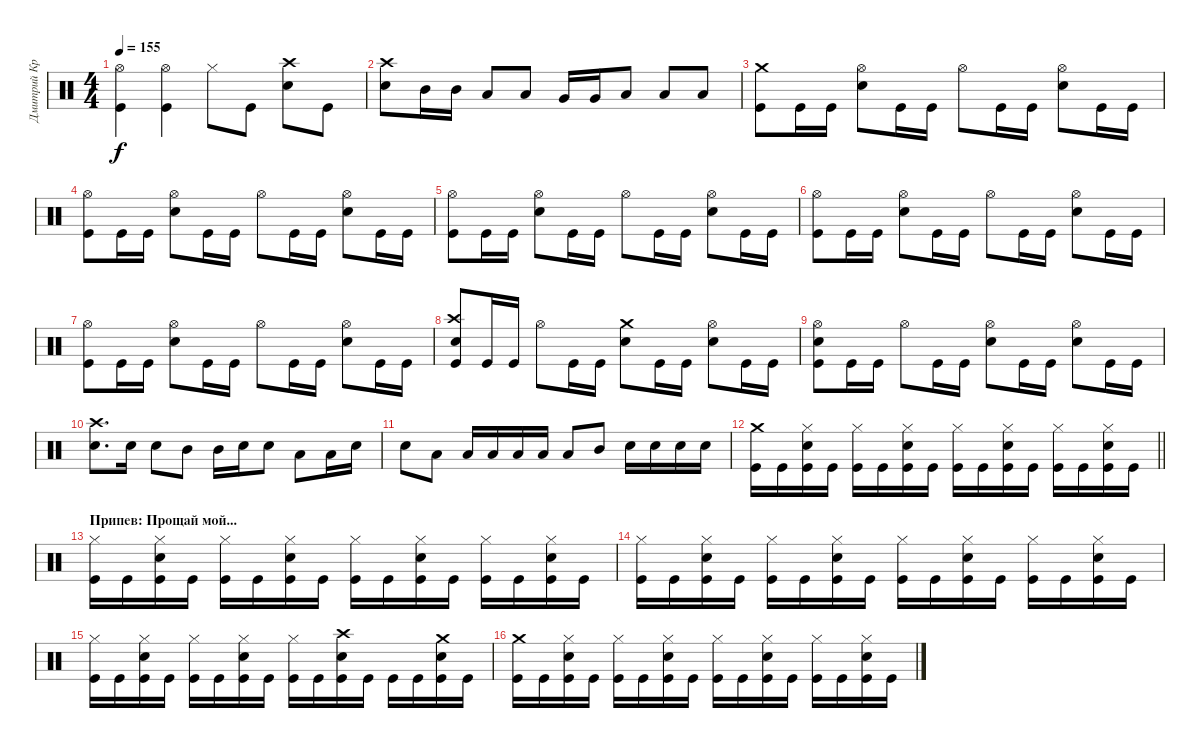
\track ("Дмитрий Кривенков" "Дмитрий Кр") {instrument percussion}
\staff {score}
\articulation defaults
\ts (4 4)
\tempo 155
\clef neutral
\ks c
("Hi-Hat (open)" "Kick (hit)").4{dy f} ("Hi-Hat (open)" "Kick (hit)").4 "Hi-Hat (closed)".8 "Kick (hit)".8 ("Crash high (hit)" "Snare (hit) 2").8 "Kick (hit)".8 |
("Crash high (hit)" "Snare (hit) 2").8 "Mid Tom (hit)".16 "Mid Tom (hit)".16 "Low Tom (hit)".8 "Low Tom (hit)".8 "Very Low Tom (hit)".16 "Very Low Tom (hit)".16 "Low Floor Tom (hit)".8 "Low Floor Tom (hit)".8 "Low Floor Tom (hit)".8 |
("Crash medium (hit)" "Kick (hit)").8 "Kick (hit)".16 "Kick (hit)".16 ("Hi-Hat (open)" "Snare (hit) 2").8 "Kick (hit)".16 "Kick (hit)".16 "Hi-Hat (open)".8 "Kick (hit)".16 "Kick (hit)".16 ("Hi-Hat (open)" "Snare (hit) 2").8 "Kick (hit)".16 "Kick (hit)".16 |
("Hi-Hat (open)" "Kick (hit)").8 "Kick (hit)".16 "Kick (hit)".16 ("Hi-Hat (open)" "Snare (hit) 2").8 "Kick (hit)".16 "Kick (hit)".16 "Hi-Hat (open)".8 "Kick (hit)".16 "Kick (hit)".16 ("Hi-Hat (open)" "Snare (hit) 2").8 "Kick (hit)".16 "Kick (hit)".16 |
("Hi-Hat (open)" "Kick (hit)").8 "Kick (hit)".16 "Kick (hit)".16 ("Hi-Hat (open)" "Snare (hit) 2").8 "Kick (hit)".16 "Kick (hit)".16 "Hi-Hat (open)".8 "Kick (hit)".16 "Kick (hit)".16 ("Hi-Hat (open)" "Snare (hit) 2").8 "Kick (hit)".16 "Kick (hit)".16 |
("Hi-Hat (open)" "Kick (hit)").8 "Kick (hit)".16 "Kick (hit)".16 ("Hi-Hat (open)" "Snare (hit) 2").8 "Kick (hit)".16 "Kick (hit)".16 "Hi-Hat (open)".8 "Kick (hit)".16 "Kick (hit)".16 ("Hi-Hat (open)" "Snare (hit) 2").8 "Kick (hit)".16 "Kick (hit)".16 |
("Hi-Hat (open)" "Kick (hit)").8 "Kick (hit)".16 "Kick (hit)".16 ("Hi-Hat (open)" "Snare (hit) 2").8 "Kick (hit)".16 "Kick (hit)".16 "Hi-Hat (open)".8 "Kick (hit)".16 "Kick (hit)".16 ("Hi-Hat (open)" "Snare (hit) 2").8 "Kick (hit)".16 "Kick (hit)".16 |
("Crash high (hit)" "Snare (hit) 2" "Kick (hit)").8 "Kick (hit)".16 "Kick (hit)".16 "Hi-Hat (open)".8 "Kick (hit)".16 "Kick (hit)".16 ("Crash medium (hit)" "Snare (hit) 2").8 "Kick (hit)".16 "Kick (hit)".16 ("Hi-Hat (open)" "Snare (hit) 2").8 "Kick (hit)".16 "Kick (hit)".16 |
("Hi-Hat (open)" "Snare (hit) 2" "Kick (hit)").8 "Kick (hit)".16 "Kick (hit)".16 "Hi-Hat (open)".8 "Kick (hit)".16 "Kick (hit)".16 ("Hi-Hat (open)" "Snare (hit) 2").8 "Kick (hit)".16 "Kick (hit)".16 ("Hi-Hat (open)" "Snare (hit) 2").8 "Kick (hit)".16 "Kick (hit)".16 |
("Crash high (hit)" "Snare (hit) 2").8{d} "Snare (hit) 2".16 "Snare (hit) 2".8 "Mid Tom (hit)".8 "Mid Tom (hit)".16 "Snare (hit) 2".16 "Snare (hit) 2".8 "Low Tom (hit)".8 "Low Tom (hit)".16 "Snare (hit) 2".16 |
"Snare (hit) 2".8 "Low Tom (hit)".8 "Low Tom (hit)".16 "Low Tom (hit)".16 "Low Tom (hit)".16 "Low Tom (hit)".16 "Low Tom (hit)".8 "Mid Tom (hit)".8 "Snare (hit) 2".16 "Snare (hit) 2".16 "Snare (hit) 2".16 "Snare (hit) 2".16 |
\barLineRight lightlight
("Crash medium (hit)" "Kick (hit)").16 "Kick (hit)".16 ("Hi-Hat (closed)" "Snare (hit) 2" "Kick (hit)").16 "Kick (hit)".16 ("Hi-Hat (closed)" "Kick (hit)").16 "Kick (hit)".16 ("Hi-Hat (closed)" "Snare (hit) 2" "Kick (hit)").16 "Kick (hit)".16 ("Hi-Hat (closed)" "Kick (hit)").16 "Kick (hit)".16 ("Hi-Hat (closed)" "Snare (hit) 2" "Kick (hit)").16 "Kick (hit)".16 ("Hi-Hat (closed)" "Kick (hit)").16 "Kick (hit)".16 ("Hi-Hat (closed)" "Snare (hit) 2" "Kick (hit)").16 "Kick (hit)".16 |
\section ("" "Припев: Прощай мой...")
("Hi-Hat (closed)" "Kick (hit)").16 "Kick (hit)".16 ("Hi-Hat (closed)" "Snare (hit) 2" "Kick (hit)").16 "Kick (hit)".16 ("Hi-Hat (closed)" "Kick (hit)").16 "Kick (hit)".16 ("Hi-Hat (closed)" "Snare (hit) 2" "Kick (hit)").16 "Kick (hit)".16 ("Hi-Hat (closed)" "Kick (hit)").16 "Kick (hit)".16 ("Hi-Hat (closed)" "Snare (hit) 2" "Kick (hit)").16 "Kick (hit)".16 ("Hi-Hat (closed)" "Kick (hit)").16 "Kick (hit)".16 ("Hi-Hat (closed)" "Snare (hit) 2" "Kick (hit)").16 "Kick (hit)".16 |
("Hi-Hat (closed)" "Kick (hit)").16 "Kick (hit)".16 ("Hi-Hat (closed)" "Snare (hit) 2" "Kick (hit)").16 "Kick (hit)".16 ("Hi-Hat (closed)" "Kick (hit)").16 "Kick (hit)".16 ("Hi-Hat (closed)" "Snare (hit) 2" "Kick (hit)").16 "Kick (hit)".16 ("Hi-Hat (closed)" "Kick (hit)").16 "Kick (hit)".16 ("Hi-Hat (closed)" "Snare (hit) 2" "Kick (hit)").16 "Kick (hit)".16 ("Hi-Hat (closed)" "Kick (hit)").16 "Kick (hit)".16 ("Hi-Hat (closed)" "Snare (hit) 2" "Kick (hit)").16 "Kick (hit)".16 |
("Hi-Hat (closed)" "Kick (hit)").16 "Kick (hit)".16 ("Hi-Hat (closed)" "Snare (hit) 2" "Kick (hit)").16 "Kick (hit)".16 ("Hi-Hat (closed)" "Kick (hit)").16 "Kick (hit)".16 ("Hi-Hat (closed)" "Snare (hit) 2" "Kick (hit)").16 "Kick (hit)".16 ("Hi-Hat (closed)" "Kick (hit)").16 "Kick (hit)".16 ("Crash high (hit)" "Snare (hit) 2" "Kick (hit)").16 "Kick (hit)".16 "Kick (hit)".16 "Kick (hit)".16 ("Crash medium (hit)" "Snare (hit) 2" "Kick (hit)").16 "Kick (hit)".16 |
("Crash medium (hit)" "Kick (hit)").16 "Kick (hit)".16 ("Hi-Hat (closed)" "Snare (hit) 2" "Kick (hit)").16 "Kick (hit)".16 ("Hi-Hat (closed)" "Kick (hit)").16 "Kick (hit)".16 ("Hi-Hat (closed)" "Snare (hit) 2" "Kick (hit)").16 "Kick (hit)".16 ("Hi-Hat (closed)" "Kick (hit)").16 "Kick (hit)".16 ("Hi-Hat (closed)" "Snare (hit) 2" "Kick (hit)").16 "Kick (hit)".16 ("Hi-Hat (closed)" "Kick (hit)").16 "Kick (hit)".16 ("Hi-Hat (closed)" "Snare (hit) 2" "Kick (hit)").16 "Kick (hit)".16
